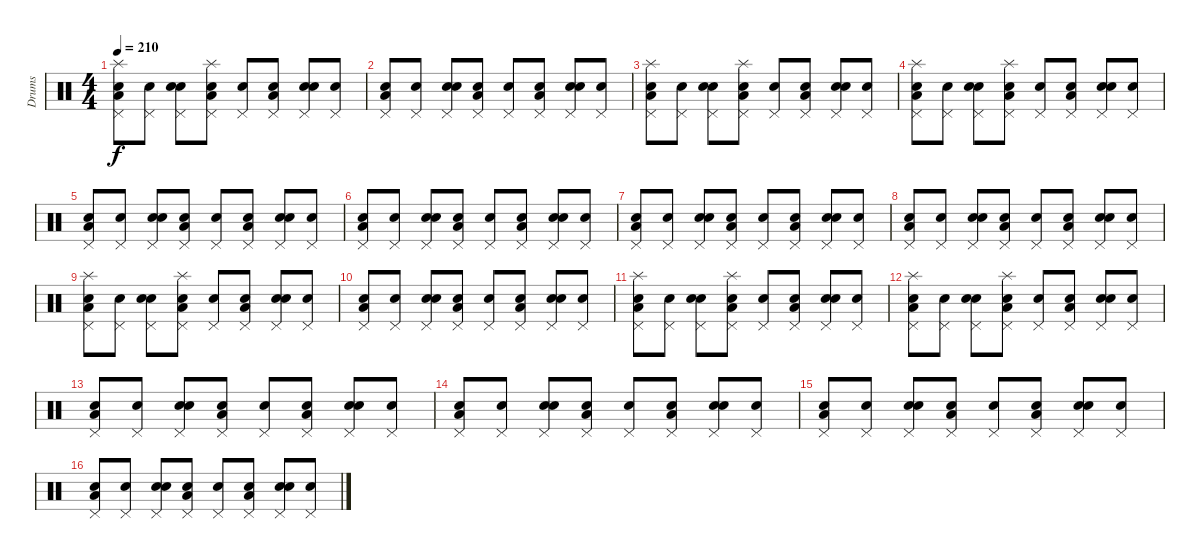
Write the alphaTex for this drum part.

\track ("Drums" "Drums") {instrument percussion}
\staff {score}
\articulation defaults
\ts (4 4)
\tempo 210
\clef neutral
\ks c
("Snare (hit)" "Low Floor Tom (hit)" "Pedal Hi-Hat (hit)" "Splash (hit)").8{dy f} ("Snare (hit)" "Pedal Hi-Hat (hit)").8 ("Snare (hit)" "Electric Snare (hit)" "Pedal Hi-Hat (hit)").8 ("Snare (hit)" "Low Floor Tom (hit)" "Pedal Hi-Hat (hit)" "Splash (hit)").8 ("Snare (hit)" "Pedal Hi-Hat (hit)").8 ("Snare (hit)" "Low Floor Tom (hit)" "Pedal Hi-Hat (hit)").8 ("Snare (hit)" "Electric Snare (hit)" "Pedal Hi-Hat (hit)").8 ("Snare (hit)" "Pedal Hi-Hat (hit)").8 |
("Snare (hit)" "Low Floor Tom (hit)" "Pedal Hi-Hat (hit)").8 ("Snare (hit)" "Pedal Hi-Hat (hit)").8 ("Snare (hit)" "Electric Snare (hit)" "Pedal Hi-Hat (hit)").8 ("Snare (hit)" "Low Floor Tom (hit)" "Pedal Hi-Hat (hit)").8 ("Snare (hit)" "Pedal Hi-Hat (hit)").8 ("Snare (hit)" "Low Floor Tom (hit)" "Pedal Hi-Hat (hit)").8 ("Snare (hit)" "Electric Snare (hit)" "Pedal Hi-Hat (hit)").8 ("Snare (hit)" "Pedal Hi-Hat (hit)").8 |
("Snare (hit)" "Low Floor Tom (hit)" "Pedal Hi-Hat (hit)" "Splash (hit)").8 ("Snare (hit)" "Pedal Hi-Hat (hit)").8 ("Snare (hit)" "Electric Snare (hit)" "Pedal Hi-Hat (hit)").8 ("Snare (hit)" "Low Floor Tom (hit)" "Pedal Hi-Hat (hit)" "Splash (hit)").8 ("Snare (hit)" "Pedal Hi-Hat (hit)").8 ("Snare (hit)" "Low Floor Tom (hit)" "Pedal Hi-Hat (hit)").8 ("Snare (hit)" "Electric Snare (hit)" "Pedal Hi-Hat (hit)").8 ("Snare (hit)" "Pedal Hi-Hat (hit)").8 |
("Snare (hit)" "Low Floor Tom (hit)" "Pedal Hi-Hat (hit)" "Splash (hit)").8 ("Snare (hit)" "Pedal Hi-Hat (hit)").8 ("Snare (hit)" "Electric Snare (hit)" "Pedal Hi-Hat (hit)").8 ("Snare (hit)" "Low Floor Tom (hit)" "Pedal Hi-Hat (hit)" "Splash (hit)").8 ("Snare (hit)" "Pedal Hi-Hat (hit)").8 ("Snare (hit)" "Low Floor Tom (hit)" "Pedal Hi-Hat (hit)").8 ("Snare (hit)" "Electric Snare (hit)" "Pedal Hi-Hat (hit)").8 ("Snare (hit)" "Pedal Hi-Hat (hit)").8 |
("Snare (hit)" "Low Floor Tom (hit)" "Pedal Hi-Hat (hit)").8 ("Snare (hit)" "Pedal Hi-Hat (hit)").8 ("Snare (hit)" "Electric Snare (hit)" "Pedal Hi-Hat (hit)").8 ("Snare (hit)" "Low Floor Tom (hit)" "Pedal Hi-Hat (hit)").8 ("Snare (hit)" "Pedal Hi-Hat (hit)").8 ("Snare (hit)" "Low Floor Tom (hit)" "Pedal Hi-Hat (hit)").8 ("Snare (hit)" "Electric Snare (hit)" "Pedal Hi-Hat (hit)").8 ("Snare (hit)" "Pedal Hi-Hat (hit)").8 |
("Snare (hit)" "Low Floor Tom (hit)" "Pedal Hi-Hat (hit)").8 ("Snare (hit)" "Pedal Hi-Hat (hit)").8 ("Snare (hit)" "Electric Snare (hit)" "Pedal Hi-Hat (hit)").8 ("Snare (hit)" "Low Floor Tom (hit)" "Pedal Hi-Hat (hit)").8 ("Snare (hit)" "Pedal Hi-Hat (hit)").8 ("Snare (hit)" "Low Floor Tom (hit)" "Pedal Hi-Hat (hit)").8 ("Snare (hit)" "Electric Snare (hit)" "Pedal Hi-Hat (hit)").8 ("Snare (hit)" "Pedal Hi-Hat (hit)").8 |
("Snare (hit)" "Low Floor Tom (hit)" "Pedal Hi-Hat (hit)").8 ("Snare (hit)" "Pedal Hi-Hat (hit)").8 ("Snare (hit)" "Electric Snare (hit)" "Pedal Hi-Hat (hit)").8 ("Snare (hit)" "Low Floor Tom (hit)" "Pedal Hi-Hat (hit)").8 ("Snare (hit)" "Pedal Hi-Hat (hit)").8 ("Snare (hit)" "Low Floor Tom (hit)" "Pedal Hi-Hat (hit)").8 ("Snare (hit)" "Electric Snare (hit)" "Pedal Hi-Hat (hit)").8 ("Snare (hit)" "Pedal Hi-Hat (hit)").8 |
("Snare (hit)" "Low Floor Tom (hit)" "Pedal Hi-Hat (hit)").8 ("Snare (hit)" "Pedal Hi-Hat (hit)").8 ("Snare (hit)" "Electric Snare (hit)" "Pedal Hi-Hat (hit)").8 ("Snare (hit)" "Low Floor Tom (hit)" "Pedal Hi-Hat (hit)").8 ("Snare (hit)" "Pedal Hi-Hat (hit)").8 ("Snare (hit)" "Low Floor Tom (hit)" "Pedal Hi-Hat (hit)").8 ("Snare (hit)" "Electric Snare (hit)" "Pedal Hi-Hat (hit)").8 ("Snare (hit)" "Pedal Hi-Hat (hit)").8 |
("Snare (hit)" "Low Floor Tom (hit)" "Pedal Hi-Hat (hit)" "Splash (hit)").8 ("Snare (hit)" "Pedal Hi-Hat (hit)").8 ("Snare (hit)" "Electric Snare (hit)" "Pedal Hi-Hat (hit)").8 ("Snare (hit)" "Low Floor Tom (hit)" "Pedal Hi-Hat (hit)" "Splash (hit)").8 ("Snare (hit)" "Pedal Hi-Hat (hit)").8 ("Snare (hit)" "Low Floor Tom (hit)" "Pedal Hi-Hat (hit)").8 ("Snare (hit)" "Electric Snare (hit)" "Pedal Hi-Hat (hit)").8 ("Snare (hit)" "Pedal Hi-Hat (hit)").8 |
("Snare (hit)" "Low Floor Tom (hit)" "Pedal Hi-Hat (hit)").8 ("Snare (hit)" "Pedal Hi-Hat (hit)").8 ("Snare (hit)" "Electric Snare (hit)" "Pedal Hi-Hat (hit)").8 ("Snare (hit)" "Low Floor Tom (hit)" "Pedal Hi-Hat (hit)").8 ("Snare (hit)" "Pedal Hi-Hat (hit)").8 ("Snare (hit)" "Low Floor Tom (hit)" "Pedal Hi-Hat (hit)").8 ("Snare (hit)" "Electric Snare (hit)" "Pedal Hi-Hat (hit)").8 ("Snare (hit)" "Pedal Hi-Hat (hit)").8 |
("Snare (hit)" "Low Floor Tom (hit)" "Pedal Hi-Hat (hit)" "Splash (hit)").8 ("Snare (hit)" "Pedal Hi-Hat (hit)").8 ("Snare (hit)" "Electric Snare (hit)" "Pedal Hi-Hat (hit)").8 ("Snare (hit)" "Low Floor Tom (hit)" "Pedal Hi-Hat (hit)" "Splash (hit)").8 ("Snare (hit)" "Pedal Hi-Hat (hit)").8 ("Snare (hit)" "Low Floor Tom (hit)" "Pedal Hi-Hat (hit)").8 ("Snare (hit)" "Electric Snare (hit)" "Pedal Hi-Hat (hit)").8 ("Snare (hit)" "Pedal Hi-Hat (hit)").8 |
("Snare (hit)" "Low Floor Tom (hit)" "Pedal Hi-Hat (hit)" "Splash (hit)").8 ("Snare (hit)" "Pedal Hi-Hat (hit)").8 ("Snare (hit)" "Electric Snare (hit)" "Pedal Hi-Hat (hit)").8 ("Snare (hit)" "Low Floor Tom (hit)" "Pedal Hi-Hat (hit)" "Splash (hit)").8 ("Snare (hit)" "Pedal Hi-Hat (hit)").8 ("Snare (hit)" "Low Floor Tom (hit)" "Pedal Hi-Hat (hit)").8 ("Snare (hit)" "Electric Snare (hit)" "Pedal Hi-Hat (hit)").8 ("Snare (hit)" "Pedal Hi-Hat (hit)").8 |
("Snare (hit)" "Low Floor Tom (hit)" "Pedal Hi-Hat (hit)").8 ("Snare (hit)" "Pedal Hi-Hat (hit)").8 ("Snare (hit)" "Electric Snare (hit)" "Pedal Hi-Hat (hit)").8 ("Snare (hit)" "Low Floor Tom (hit)" "Pedal Hi-Hat (hit)").8 ("Snare (hit)" "Pedal Hi-Hat (hit)").8 ("Snare (hit)" "Low Floor Tom (hit)" "Pedal Hi-Hat (hit)").8 ("Snare (hit)" "Electric Snare (hit)" "Pedal Hi-Hat (hit)").8 ("Snare (hit)" "Pedal Hi-Hat (hit)").8 |
("Snare (hit)" "Low Floor Tom (hit)" "Pedal Hi-Hat (hit)").8 ("Snare (hit)" "Pedal Hi-Hat (hit)").8 ("Snare (hit)" "Electric Snare (hit)" "Pedal Hi-Hat (hit)").8 ("Snare (hit)" "Low Floor Tom (hit)" "Pedal Hi-Hat (hit)").8 ("Snare (hit)" "Pedal Hi-Hat (hit)").8 ("Snare (hit)" "Low Floor Tom (hit)" "Pedal Hi-Hat (hit)").8 ("Snare (hit)" "Electric Snare (hit)" "Pedal Hi-Hat (hit)").8 ("Snare (hit)" "Pedal Hi-Hat (hit)").8 |
("Snare (hit)" "Low Floor Tom (hit)" "Pedal Hi-Hat (hit)").8 ("Snare (hit)" "Pedal Hi-Hat (hit)").8 ("Snare (hit)" "Electric Snare (hit)" "Pedal Hi-Hat (hit)").8 ("Snare (hit)" "Low Floor Tom (hit)" "Pedal Hi-Hat (hit)").8 ("Snare (hit)" "Pedal Hi-Hat (hit)").8 ("Snare (hit)" "Low Floor Tom (hit)" "Pedal Hi-Hat (hit)").8 ("Snare (hit)" "Electric Snare (hit)" "Pedal Hi-Hat (hit)").8 ("Snare (hit)" "Pedal Hi-Hat (hit)").8 |
("Snare (hit)" "Low Floor Tom (hit)" "Pedal Hi-Hat (hit)").8 ("Snare (hit)" "Pedal Hi-Hat (hit)").8 ("Snare (hit)" "Electric Snare (hit)" "Pedal Hi-Hat (hit)").8 ("Snare (hit)" "Low Floor Tom (hit)" "Pedal Hi-Hat (hit)").8 ("Snare (hit)" "Pedal Hi-Hat (hit)").8 ("Snare (hit)" "Low Floor Tom (hit)" "Pedal Hi-Hat (hit)").8 ("Snare (hit)" "Electric Snare (hit)" "Pedal Hi-Hat (hit)").8 ("Snare (hit)" "Pedal Hi-Hat (hit)").8
